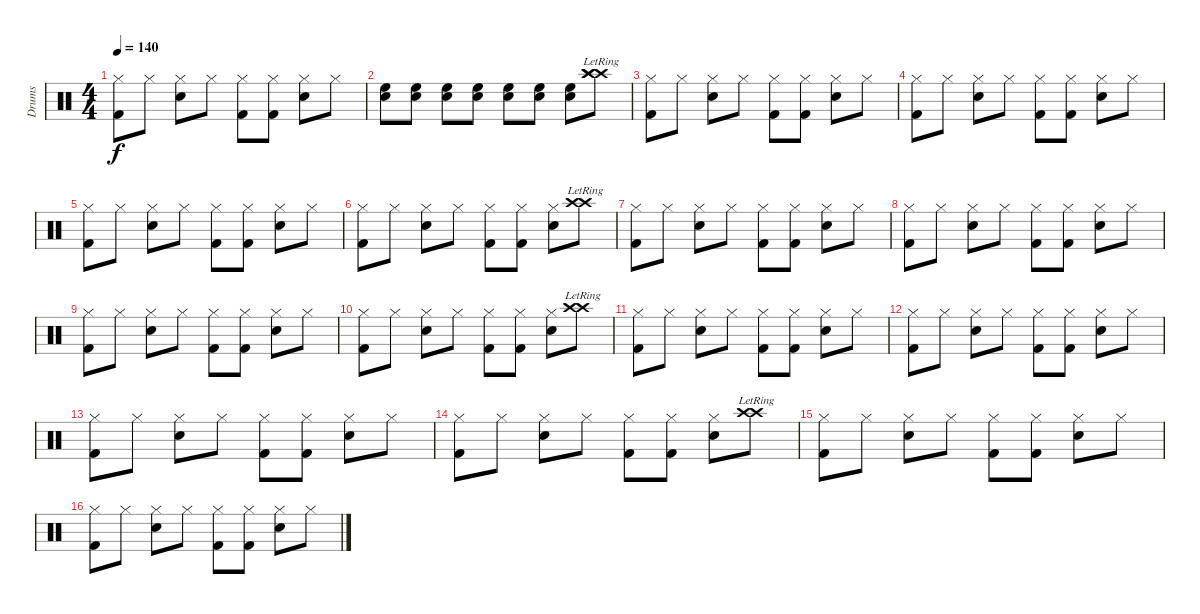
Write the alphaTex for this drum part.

\track ("Drums" "Drums") {instrument percussion}
\staff {score}
\articulation defaults
\ts (4 4)
\tempo 140
\clef neutral
\ks c
("Hi-Hat (closed)" "Kick (hit) 2").8{dy f} "Hi-Hat (closed)".8 ("Hi-Hat (closed)" "Snare (hit) 2").8 "Hi-Hat (closed)".8 ("Hi-Hat (closed)" "Kick (hit) 2").8 ("Hi-Hat (closed)" "Kick (hit) 2").8 ("Hi-Hat (closed)" "Snare (hit) 2").8 "Hi-Hat (closed)".8 |
("High Floor Tom (hit)" "Snare (hit) 2").8 ("High Floor Tom (hit)" "Snare (hit) 2").8 ("High Floor Tom (hit)" "Snare (hit) 2").8 ("High Floor Tom (hit)" "Snare (hit) 2").8 ("High Floor Tom (hit)" "Snare (hit) 2").8 ("High Floor Tom (hit)" "Snare (hit) 2").8 ("High Floor Tom (hit)" "Snare (hit) 2").8 ("Crash high (hit)"{lr} "Crash high (hit)"{lr} "Crash high (hit)"{lr}).8 |
("Hi-Hat (closed)" "Kick (hit) 2").8 "Hi-Hat (closed)".8 ("Hi-Hat (closed)" "Snare (hit) 2").8 "Hi-Hat (closed)".8 ("Hi-Hat (closed)" "Kick (hit) 2").8 ("Hi-Hat (closed)" "Kick (hit) 2").8 ("Hi-Hat (closed)" "Snare (hit) 2").8 "Hi-Hat (closed)".8 |
("Hi-Hat (closed)" "Kick (hit) 2").8 "Hi-Hat (closed)".8 ("Hi-Hat (closed)" "Snare (hit) 2").8 "Hi-Hat (closed)".8 ("Hi-Hat (closed)" "Kick (hit) 2").8 ("Hi-Hat (closed)" "Kick (hit) 2").8 ("Hi-Hat (closed)" "Snare (hit) 2").8 "Hi-Hat (closed)".8 |
("Hi-Hat (closed)" "Kick (hit) 2").8 "Hi-Hat (closed)".8 ("Hi-Hat (closed)" "Snare (hit) 2").8 "Hi-Hat (closed)".8 ("Hi-Hat (closed)" "Kick (hit) 2").8 ("Hi-Hat (closed)" "Kick (hit) 2").8 ("Hi-Hat (closed)" "Snare (hit) 2").8 "Hi-Hat (closed)".8 |
("Hi-Hat (closed)" "Kick (hit) 2").8 "Hi-Hat (closed)".8 ("Hi-Hat (closed)" "Snare (hit) 2").8 "Hi-Hat (closed)".8 ("Hi-Hat (closed)" "Kick (hit) 2").8 ("Hi-Hat (closed)" "Kick (hit) 2").8 ("Hi-Hat (closed)" "Snare (hit) 2").8 ("Crash high (hit)"{lr} "Crash high (hit)"{lr}).8 |
("Hi-Hat (closed)" "Kick (hit) 2").8 "Hi-Hat (closed)".8 ("Hi-Hat (closed)" "Snare (hit) 2").8 "Hi-Hat (closed)".8 ("Hi-Hat (closed)" "Kick (hit) 2").8 ("Hi-Hat (closed)" "Kick (hit) 2").8 ("Hi-Hat (closed)" "Snare (hit) 2").8 "Hi-Hat (closed)".8 |
("Hi-Hat (closed)" "Kick (hit) 2").8 "Hi-Hat (closed)".8 ("Hi-Hat (closed)" "Snare (hit) 2").8 "Hi-Hat (closed)".8 ("Hi-Hat (closed)" "Kick (hit) 2").8 ("Hi-Hat (closed)" "Kick (hit) 2").8 ("Hi-Hat (closed)" "Snare (hit) 2").8 "Hi-Hat (closed)".8 |
("Hi-Hat (closed)" "Kick (hit) 2").8 "Hi-Hat (closed)".8 ("Hi-Hat (closed)" "Snare (hit) 2").8 "Hi-Hat (closed)".8 ("Hi-Hat (closed)" "Kick (hit) 2").8 ("Hi-Hat (closed)" "Kick (hit) 2").8 ("Hi-Hat (closed)" "Snare (hit) 2").8 "Hi-Hat (closed)".8 |
("Hi-Hat (closed)" "Kick (hit) 2").8 "Hi-Hat (closed)".8 ("Hi-Hat (closed)" "Snare (hit) 2").8 "Hi-Hat (closed)".8 ("Hi-Hat (closed)" "Kick (hit) 2").8 ("Hi-Hat (closed)" "Kick (hit) 2").8 ("Hi-Hat (closed)" "Snare (hit) 2").8 ("Crash high (hit)"{lr} "Crash high (hit)"{lr}).8 |
("Hi-Hat (closed)" "Kick (hit) 2").8 "Hi-Hat (closed)".8 ("Hi-Hat (closed)" "Snare (hit) 2").8 "Hi-Hat (closed)".8 ("Hi-Hat (closed)" "Kick (hit) 2").8 ("Hi-Hat (closed)" "Kick (hit) 2").8 ("Hi-Hat (closed)" "Snare (hit) 2").8 "Hi-Hat (closed)".8 |
("Hi-Hat (closed)" "Kick (hit) 2").8 "Hi-Hat (closed)".8 ("Hi-Hat (closed)" "Snare (hit) 2").8 "Hi-Hat (closed)".8 ("Hi-Hat (closed)" "Kick (hit) 2").8 ("Hi-Hat (closed)" "Kick (hit) 2").8 ("Hi-Hat (closed)" "Snare (hit) 2").8 "Hi-Hat (closed)".8 |
("Hi-Hat (closed)" "Kick (hit) 2").8{volume 11} "Hi-Hat (closed)".8 ("Hi-Hat (closed)" "Snare (hit) 2").8 "Hi-Hat (closed)".8 ("Hi-Hat (closed)" "Kick (hit) 2").8 ("Hi-Hat (closed)" "Kick (hit) 2").8 ("Hi-Hat (closed)" "Snare (hit) 2").8 "Hi-Hat (closed)".8 |
("Hi-Hat (closed)" "Kick (hit) 2").8{volume 10} "Hi-Hat (closed)".8 ("Hi-Hat (closed)" "Snare (hit) 2").8 "Hi-Hat (closed)".8 ("Hi-Hat (closed)" "Kick (hit) 2").8 ("Hi-Hat (closed)" "Kick (hit) 2").8 ("Hi-Hat (closed)" "Snare (hit) 2").8 ("Crash high (hit)"{lr} "Crash high (hit)"{lr}).8 |
("Hi-Hat (closed)" "Kick (hit) 2").8{volume 9} "Hi-Hat (closed)".8 ("Hi-Hat (closed)" "Snare (hit) 2").8 "Hi-Hat (closed)".8 ("Hi-Hat (closed)" "Kick (hit) 2").8 ("Hi-Hat (closed)" "Kick (hit) 2").8 ("Hi-Hat (closed)" "Snare (hit) 2").8 "Hi-Hat (closed)".8 |
("Hi-Hat (closed)" "Kick (hit) 2").8 "Hi-Hat (closed)".8 ("Hi-Hat (closed)" "Snare (hit) 2").8 "Hi-Hat (closed)".8 ("Hi-Hat (closed)" "Kick (hit) 2").8 ("Hi-Hat (closed)" "Kick (hit) 2").8 ("Hi-Hat (closed)" "Snare (hit) 2").8 "Hi-Hat (closed)".8
